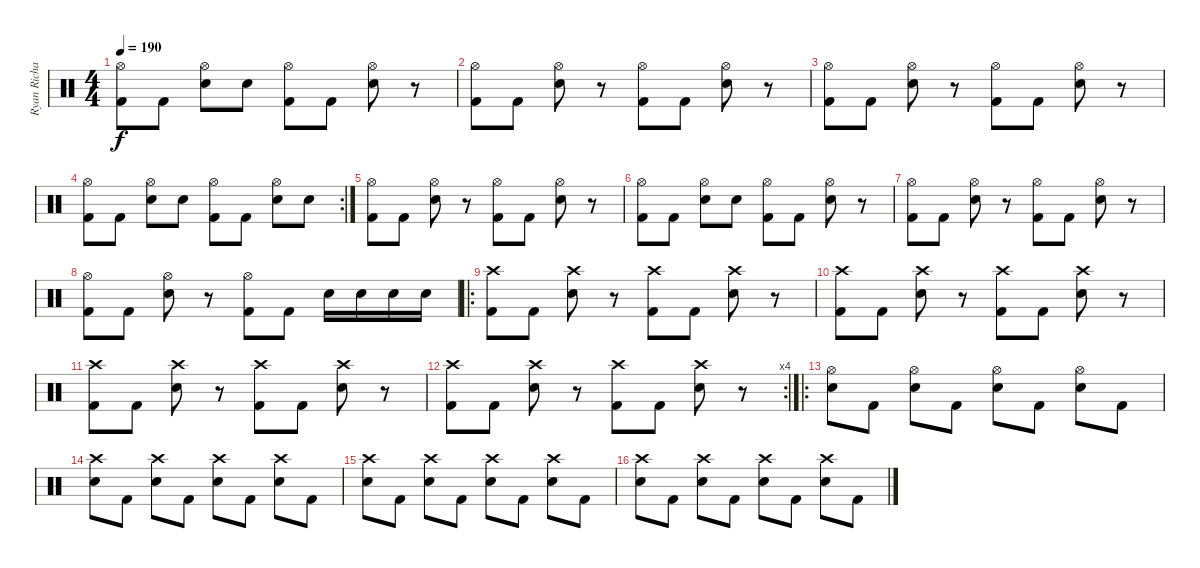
\track ("Ryan Richards" "Ryan Richa") {instrument percussion}
\staff {score}
\articulation defaults
\ts (4 4)
\tempo 190
\clef neutral
\ks c
("Hi-Hat (open)" "Kick (hit) 2").8{dy f} "Kick (hit) 2".8 ("Hi-Hat (open)" "Snare (hit) 2").8 "Snare (hit) 2".8 ("Hi-Hat (open)" "Kick (hit) 2").8 "Kick (hit) 2".8 ("Hi-Hat (open)" "Snare (hit) 2").8 r.8 |
("Hi-Hat (open)" "Kick (hit) 2").8 "Kick (hit) 2".8 ("Hi-Hat (open)" "Snare (hit) 2").8 r.8 ("Hi-Hat (open)" "Kick (hit) 2").8 "Kick (hit) 2".8 ("Hi-Hat (open)" "Snare (hit) 2").8 r.8 |
("Hi-Hat (open)" "Kick (hit) 2").8 "Kick (hit) 2".8 ("Hi-Hat (open)" "Snare (hit) 2").8 r.8 ("Hi-Hat (open)" "Kick (hit) 2").8 "Kick (hit) 2".8 ("Hi-Hat (open)" "Snare (hit) 2").8 r.8 |
\rc 2
("Hi-Hat (open)" "Kick (hit) 2").8 "Kick (hit) 2".8 ("Hi-Hat (open)" "Snare (hit) 2").8 "Snare (hit) 2".8 ("Hi-Hat (open)" "Kick (hit) 2").8 "Kick (hit) 2".8 ("Hi-Hat (open)" "Snare (hit) 2").8 "Snare (hit) 2".8 |
("Hi-Hat (open)" "Kick (hit) 2").8 "Kick (hit) 2".8 ("Hi-Hat (open)" "Snare (hit) 2").8 r.8 ("Hi-Hat (open)" "Kick (hit) 2").8 "Kick (hit) 2".8 ("Hi-Hat (open)" "Snare (hit) 2").8 r.8 |
("Hi-Hat (open)" "Kick (hit) 2").8 "Kick (hit) 2".8 ("Hi-Hat (open)" "Snare (hit) 2").8 "Snare (hit) 2".8 ("Hi-Hat (open)" "Kick (hit) 2").8 "Kick (hit) 2".8 ("Hi-Hat (open)" "Snare (hit) 2").8 r.8 |
("Hi-Hat (open)" "Kick (hit) 2").8 "Kick (hit) 2".8 ("Hi-Hat (open)" "Snare (hit) 2").8 r.8 ("Hi-Hat (open)" "Kick (hit) 2").8 "Kick (hit) 2".8 ("Hi-Hat (open)" "Snare (hit) 2").8 r.8 |
("Hi-Hat (open)" "Kick (hit) 2").8 "Kick (hit) 2".8 ("Hi-Hat (open)" "Snare (hit) 2").8 r.8 ("Hi-Hat (open)" "Kick (hit) 2").8 "Kick (hit) 2".8 "Snare (hit) 2".16 "Snare (hit) 2".16 "Snare (hit) 2".16 "Snare (hit) 2".16 |
\ro
("Crash high (hit)" "Kick (hit) 2").8 "Kick (hit) 2".8 ("Crash high (hit)" "Snare (hit) 2").8 r.8 ("Crash high (hit)" "Kick (hit) 2").8 "Kick (hit) 2".8 ("Crash high (hit)" "Snare (hit) 2").8 r.8 |
("Crash high (hit)" "Kick (hit) 2").8 "Kick (hit) 2".8 ("Crash high (hit)" "Snare (hit) 2").8 r.8 ("Crash high (hit)" "Kick (hit) 2").8 "Kick (hit) 2".8 ("Crash high (hit)" "Snare (hit) 2").8 r.8 |
("Crash high (hit)" "Kick (hit) 2").8 "Kick (hit) 2".8 ("Crash high (hit)" "Snare (hit) 2").8 r.8 ("Crash high (hit)" "Kick (hit) 2").8 "Kick (hit) 2".8 ("Crash high (hit)" "Snare (hit) 2").8 r.8 |
\rc 4
("Crash high (hit)" "Kick (hit) 2").8 "Kick (hit) 2".8 ("Crash high (hit)" "Snare (hit) 2").8 r.8 ("Crash high (hit)" "Kick (hit) 2").8 "Kick (hit) 2".8 ("Crash high (hit)" "Snare (hit) 2").8 r.8 |
\ro
("Hi-Hat (open)" "Snare (hit) 2").8 "Kick (hit) 2".8 ("Hi-Hat (open)" "Snare (hit) 2").8 "Kick (hit) 2".8 ("Hi-Hat (open)" "Snare (hit) 2").8 "Kick (hit) 2".8 ("Hi-Hat (open)" "Snare (hit) 2").8 "Kick (hit) 2".8 |
("Crash high (hit)" "Snare (hit) 2").8 "Kick (hit) 2".8 ("Crash high (hit)" "Snare (hit) 2").8 "Kick (hit) 2".8 ("Crash high (hit)" "Snare (hit) 2").8 "Kick (hit) 2".8 ("Crash high (hit)" "Snare (hit) 2").8 "Kick (hit) 2".8 |
("Crash high (hit)" "Snare (hit) 2").8 "Kick (hit) 2".8 ("Crash high (hit)" "Snare (hit) 2").8 "Kick (hit) 2".8 ("Crash high (hit)" "Snare (hit) 2").8 "Kick (hit) 2".8 ("Crash high (hit)" "Snare (hit) 2").8 "Kick (hit) 2".8 |
("Crash high (hit)" "Snare (hit) 2").8 "Kick (hit) 2".8 ("Crash high (hit)" "Snare (hit) 2").8 "Kick (hit) 2".8 ("Crash high (hit)" "Snare (hit) 2").8 "Kick (hit) 2".8 ("Crash high (hit)" "Snare (hit) 2").8 "Kick (hit) 2".8
